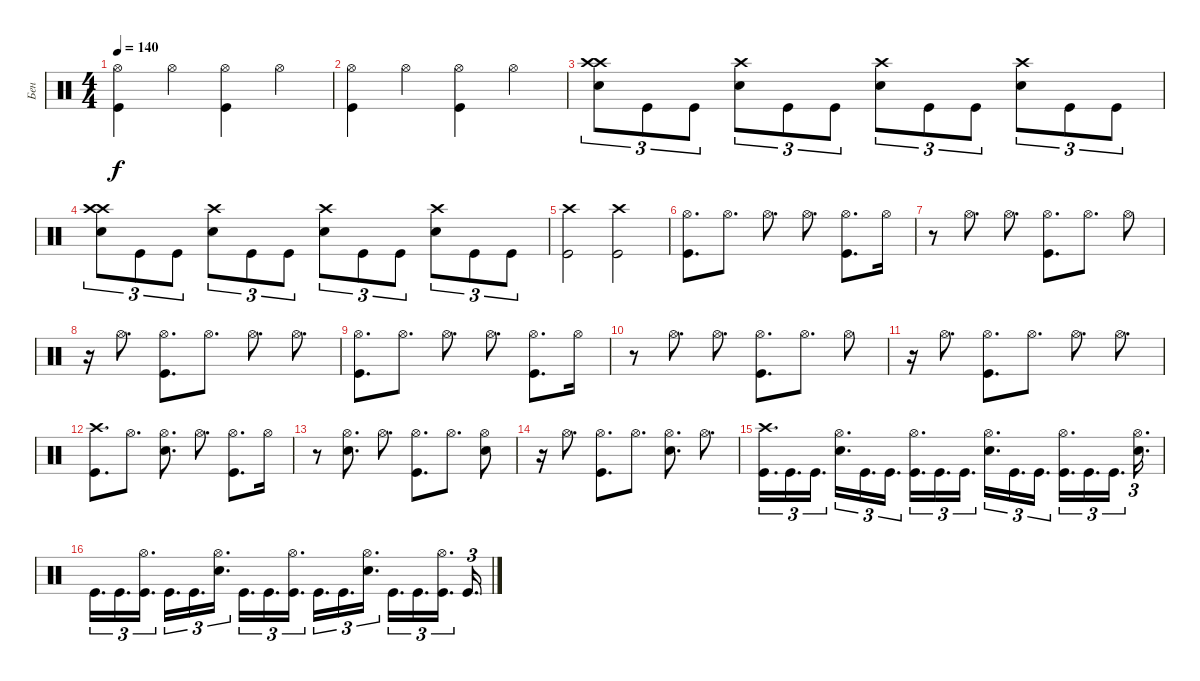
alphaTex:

\track ("Бен" "Бен") {instrument percussion}
\staff {score}
\articulation defaults
\ts (4 4)
\tempo 140
\clef neutral
\ks c
("Kick (hit)" "Hi-Hat (open)").4{dy f} "Hi-Hat (open)".4 ("Hi-Hat (open)" "Kick (hit)").4 "Hi-Hat (open)".4 |
("Kick (hit)" "Hi-Hat (open)").4 "Hi-Hat (open)".4 ("Hi-Hat (open)" "Kick (hit)").4 "Hi-Hat (open)".4 |
("Snare (hit) 2" "Crash high (hit)" "Crash high (hit)").8{tu (3 2)} "Kick (hit)".8{tu (3 2)} "Kick (hit)".8{tu (3 2)} ("Crash high (hit)" "Snare (hit) 2").8{tu (3 2)} "Kick (hit)".8{tu (3 2)} "Kick (hit)".8{tu (3 2)} ("Crash high (hit)" "Snare (hit) 2").8{tu (3 2)} "Kick (hit)".8{tu (3 2)} "Kick (hit)".8{tu (3 2)} ("Crash high (hit)" "Snare (hit) 2").8{tu (3 2)} "Kick (hit)".8{tu (3 2)} "Kick (hit)".8{tu (3 2)} |
("Snare (hit) 2" "Crash high (hit)" "Crash high (hit)").8{tu (3 2)} "Kick (hit)".8{tu (3 2)} "Kick (hit)".8{tu (3 2)} ("Crash high (hit)" "Snare (hit) 2").8{tu (3 2)} "Kick (hit)".8{tu (3 2)} "Kick (hit)".8{tu (3 2)} ("Crash high (hit)" "Snare (hit) 2").8{tu (3 2)} "Kick (hit)".8{tu (3 2)} "Kick (hit)".8{tu (3 2)} ("Crash high (hit)" "Snare (hit) 2").8{tu (3 2)} "Kick (hit)".8{tu (3 2)} "Kick (hit)".8{tu (3 2)} |
("Crash high (hit)" "Kick (hit)").2 ("Crash high (hit)" "Kick (hit)").2 |
("Hi-Hat (open)" "Kick (hit)").8{d} "Hi-Hat (open)".8{d} "Hi-Hat (open)".8{d} "Hi-Hat (open)".8{d} ("Hi-Hat (open)" "Kick (hit)").8{d} "Hi-Hat (open)".16 |
r.8 "Hi-Hat (open)".8{d} "Hi-Hat (open)".8{d} ("Hi-Hat (open)" "Kick (hit)").8{d} "Hi-Hat (open)".8{d} "Hi-Hat (open)".8 |
r.16 "Hi-Hat (open)".8{d} ("Hi-Hat (open)" "Kick (hit)").8{d} "Hi-Hat (open)".8{d} "Hi-Hat (open)".8{d} "Hi-Hat (open)".8{d} |
("Hi-Hat (open)" "Kick (hit)").8{d} "Hi-Hat (open)".8{d} "Hi-Hat (open)".8{d} "Hi-Hat (open)".8{d} ("Hi-Hat (open)" "Kick (hit)").8{d} "Hi-Hat (open)".16 |
r.8 "Hi-Hat (open)".8{d} "Hi-Hat (open)".8{d} ("Hi-Hat (open)" "Kick (hit)").8{d} "Hi-Hat (open)".8{d} "Hi-Hat (open)".8 |
r.16 "Hi-Hat (open)".8{d} ("Hi-Hat (open)" "Kick (hit)").8{d} "Hi-Hat (open)".8{d} "Hi-Hat (open)".8{d} "Hi-Hat (open)".8{d} |
("Crash high (hit)" "Kick (hit)").8{d} "Hi-Hat (open)".8{d} ("Hi-Hat (open)" "Snare (hit) 2").8{d} "Hi-Hat (open)".8{d} ("Hi-Hat (open)" "Kick (hit)").8{d} "Hi-Hat (open)".16 |
r.8 ("Hi-Hat (open)" "Snare (hit) 2").8{d} "Hi-Hat (open)".8{d} ("Hi-Hat (open)" "Kick (hit)").8{d} "Hi-Hat (open)".8{d} ("Hi-Hat (open)" "Snare (hit) 2").8 |
r.16 "Hi-Hat (open)".8{d} ("Hi-Hat (open)" "Kick (hit)").8{d} "Hi-Hat (open)".8{d} ("Hi-Hat (open)" "Snare (hit) 2").8{d} "Hi-Hat (open)".8{d} |
("Kick (hit)" "Crash high (hit)").16{d tu (3 2)} "Kick (hit)".16{d tu (3 2)} "Kick (hit)".16{d tu (3 2)} ("Snare (hit) 2" "Hi-Hat (open)").16{d tu (3 2)} "Kick (hit)".16{d tu (3 2)} "Kick (hit)".16{d tu (3 2)} ("Kick (hit)" "Hi-Hat (open)").16{d tu (3 2)} "Kick (hit)".16{d tu (3 2)} "Kick (hit)".16{d tu (3 2)} ("Snare (hit) 2" "Hi-Hat (open)").16{d tu (3 2)} "Kick (hit)".16{d tu (3 2)} "Kick (hit)".16{d tu (3 2)} ("Kick (hit)" "Hi-Hat (open)").16{d tu (3 2)} "Kick (hit)".16{d tu (3 2)} "Kick (hit)".16{d tu (3 2)} ("Snare (hit) 2" "Hi-Hat (open)").16{d tu (3 2)} |
"Kick (hit)".16{d tu (3 2)} "Kick (hit)".16{d tu (3 2)} ("Kick (hit)" "Hi-Hat (open)").16{d tu (3 2)} "Kick (hit)".16{d tu (3 2)} "Kick (hit)".16{d tu (3 2)} ("Snare (hit) 2" "Hi-Hat (open)").16{d tu (3 2)} "Kick (hit)".16{d tu (3 2)} "Kick (hit)".16{d tu (3 2)} ("Kick (hit)" "Hi-Hat (open)").16{d tu (3 2)} "Kick (hit)".16{d tu (3 2)} "Kick (hit)".16{d tu (3 2)} ("Snare (hit) 2" "Hi-Hat (open)").16{d tu (3 2)} "Kick (hit)".16{d tu (3 2)} "Kick (hit)".16{d tu (3 2)} ("Kick (hit)" "Hi-Hat (open)").16{d tu (3 2)} "Kick (hit)".16{d tu (3 2)}
